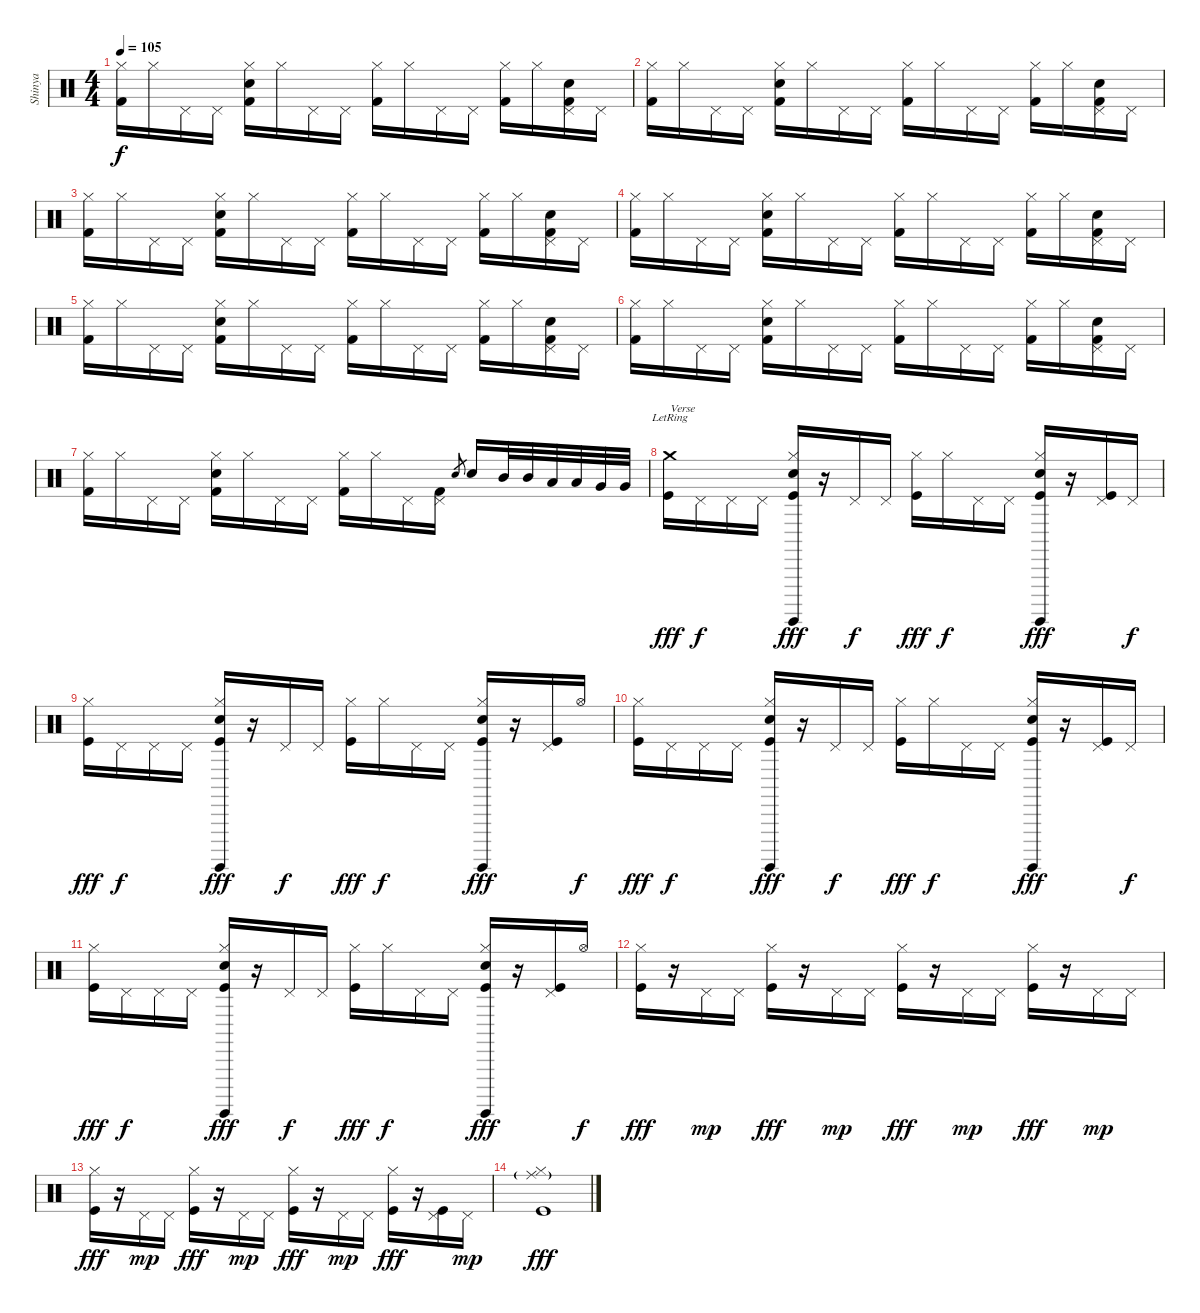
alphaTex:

\track ("Shinya" "Shinya") {instrument percussion}
\staff {score}
\articulation defaults
\ts (4 4)
\tempo 105
\clef neutral
\ks c
("Hi-Hat (closed)" "Kick (hit) 2").16{dy f} "Hi-Hat (closed)".16 "Pedal Hi-Hat (hit)".16 "Pedal Hi-Hat (hit)".16 ("Hi-Hat (closed)" "Electric Snare (hit)" "Kick (hit) 2").16 "Hi-Hat (closed)".16 "Pedal Hi-Hat (hit)".16 "Pedal Hi-Hat (hit)".16 ("Hi-Hat (closed)" "Kick (hit) 2").16 "Hi-Hat (closed)".16 "Pedal Hi-Hat (hit)".16 "Pedal Hi-Hat (hit)".16 ("Hi-Hat (closed)" "Kick (hit) 2").16 "Hi-Hat (closed)".16 ("Pedal Hi-Hat (hit)" "Electric Snare (hit)" "Kick (hit) 2").16 "Pedal Hi-Hat (hit)".16 |
("Hi-Hat (closed)" "Kick (hit) 2").16 "Hi-Hat (closed)".16 "Pedal Hi-Hat (hit)".16 "Pedal Hi-Hat (hit)".16 ("Hi-Hat (closed)" "Electric Snare (hit)" "Kick (hit) 2").16 "Hi-Hat (closed)".16 "Pedal Hi-Hat (hit)".16 "Pedal Hi-Hat (hit)".16 ("Hi-Hat (closed)" "Kick (hit) 2").16 "Hi-Hat (closed)".16 "Pedal Hi-Hat (hit)".16 "Pedal Hi-Hat (hit)".16 ("Hi-Hat (closed)" "Kick (hit) 2").16 "Hi-Hat (closed)".16 ("Pedal Hi-Hat (hit)" "Electric Snare (hit)" "Kick (hit) 2").16 "Pedal Hi-Hat (hit)".16 |
("Hi-Hat (closed)" "Kick (hit) 2").16 "Hi-Hat (closed)".16 "Pedal Hi-Hat (hit)".16 "Pedal Hi-Hat (hit)".16 ("Hi-Hat (closed)" "Electric Snare (hit)" "Kick (hit) 2").16 "Hi-Hat (closed)".16 "Pedal Hi-Hat (hit)".16 "Pedal Hi-Hat (hit)".16 ("Hi-Hat (closed)" "Kick (hit) 2").16 "Hi-Hat (closed)".16 "Pedal Hi-Hat (hit)".16 "Pedal Hi-Hat (hit)".16 ("Hi-Hat (closed)" "Kick (hit) 2").16 "Hi-Hat (closed)".16 ("Pedal Hi-Hat (hit)" "Electric Snare (hit)" "Kick (hit) 2").16 "Pedal Hi-Hat (hit)".16 |
("Hi-Hat (closed)" "Kick (hit) 2").16 "Hi-Hat (closed)".16 "Pedal Hi-Hat (hit)".16 "Pedal Hi-Hat (hit)".16 ("Hi-Hat (closed)" "Electric Snare (hit)" "Kick (hit) 2").16 "Hi-Hat (closed)".16 "Pedal Hi-Hat (hit)".16 "Pedal Hi-Hat (hit)".16 ("Hi-Hat (closed)" "Kick (hit) 2").16 "Hi-Hat (closed)".16 "Pedal Hi-Hat (hit)".16 "Pedal Hi-Hat (hit)".16 ("Hi-Hat (closed)" "Kick (hit) 2").16 "Hi-Hat (closed)".16 ("Pedal Hi-Hat (hit)" "Electric Snare (hit)" "Kick (hit) 2").16 "Pedal Hi-Hat (hit)".16 |
("Hi-Hat (closed)" "Kick (hit) 2").16 "Hi-Hat (closed)".16 "Pedal Hi-Hat (hit)".16 "Pedal Hi-Hat (hit)".16 ("Hi-Hat (closed)" "Electric Snare (hit)" "Kick (hit) 2").16 "Hi-Hat (closed)".16 "Pedal Hi-Hat (hit)".16 "Pedal Hi-Hat (hit)".16 ("Hi-Hat (closed)" "Kick (hit) 2").16 "Hi-Hat (closed)".16 "Pedal Hi-Hat (hit)".16 "Pedal Hi-Hat (hit)".16 ("Hi-Hat (closed)" "Kick (hit) 2").16 "Hi-Hat (closed)".16 ("Pedal Hi-Hat (hit)" "Electric Snare (hit)" "Kick (hit) 2").16 "Pedal Hi-Hat (hit)".16 |
("Hi-Hat (closed)" "Kick (hit) 2").16 "Hi-Hat (closed)".16 "Pedal Hi-Hat (hit)".16 "Pedal Hi-Hat (hit)".16 ("Hi-Hat (closed)" "Electric Snare (hit)" "Kick (hit) 2").16 "Hi-Hat (closed)".16 "Pedal Hi-Hat (hit)".16 "Pedal Hi-Hat (hit)".16 ("Hi-Hat (closed)" "Kick (hit) 2").16 "Hi-Hat (closed)".16 "Pedal Hi-Hat (hit)".16 "Pedal Hi-Hat (hit)".16 ("Hi-Hat (closed)" "Kick (hit) 2").16 "Hi-Hat (closed)".16 ("Pedal Hi-Hat (hit)" "Electric Snare (hit)" "Kick (hit) 2").16 "Pedal Hi-Hat (hit)".16 |
("Hi-Hat (closed)" "Kick (hit) 2").16 "Hi-Hat (closed)".16 "Pedal Hi-Hat (hit)".16 "Pedal Hi-Hat (hit)".16 ("Hi-Hat (closed)" "Electric Snare (hit)" "Kick (hit) 2").16 "Hi-Hat (closed)".16 "Pedal Hi-Hat (hit)".16 "Pedal Hi-Hat (hit)".16 ("Hi-Hat (closed)" "Kick (hit) 2").16 "Hi-Hat (closed)".16 "Pedal Hi-Hat (hit)".16 ("Pedal Hi-Hat (hit)" "Kick (hit) 2").16 "Electric Snare (hit)".8{gr} "Electric Snare (hit)".16 "Mid Tom (hit)".32 "Mid Tom (hit)".32 "Low Tom (hit)".32 "Low Tom (hit)".32 "Very Low Tom (hit)".32 "Very Low Tom (hit)".32 |
\section ("" "")
("Crash medium (hit)"{lr} "Kick (hit)").16{txt "Verse" dy fff} "Pedal Hi-Hat (hit)".16{dy f} "Pedal Hi-Hat (hit)".16 "Pedal Hi-Hat (hit)".16 ("Hi-Hat (closed)" "Surdo (hit)" "Electric Snare (hit)" "Kick (hit)").16{dy fff} r.16 "Pedal Hi-Hat (hit)".16{dy f} "Pedal Hi-Hat (hit)".16 ("Hi-Hat (closed)" "Kick (hit)").16{dy fff} "Hi-Hat (closed)".16{dy f} "Pedal Hi-Hat (hit)".16 "Pedal Hi-Hat (hit)".16 ("Hi-Hat (closed)" "Surdo (hit)" "Electric Snare (hit)" "Kick (hit)").16{dy fff} r.16 ("Pedal Hi-Hat (hit)" "Kick (hit)").16 "Pedal Hi-Hat (hit)".16{dy f} |
("Hi-Hat (closed)" "Kick (hit)").16{dy fff} "Pedal Hi-Hat (hit)".16{dy f} "Pedal Hi-Hat (hit)".16 "Pedal Hi-Hat (hit)".16 ("Hi-Hat (closed)" "Surdo (hit)" "Electric Snare (hit)" "Kick (hit)").16{dy fff} r.16 "Pedal Hi-Hat (hit)".16{dy f} "Pedal Hi-Hat (hit)".16 ("Hi-Hat (closed)" "Kick (hit)").16{dy fff} "Hi-Hat (closed)".16{dy f} "Pedal Hi-Hat (hit)".16 "Pedal Hi-Hat (hit)".16 ("Hi-Hat (closed)" "Surdo (hit)" "Electric Snare (hit)" "Kick (hit)").16{dy fff} r.16 ("Pedal Hi-Hat (hit)" "Kick (hit)").16 "Hi-Hat (open)".16{dy f} |
("Hi-Hat (closed)" "Kick (hit)").16{dy fff} "Pedal Hi-Hat (hit)".16{dy f} "Pedal Hi-Hat (hit)".16 "Pedal Hi-Hat (hit)".16 ("Hi-Hat (closed)" "Surdo (hit)" "Electric Snare (hit)" "Kick (hit)").16{dy fff} r.16 "Pedal Hi-Hat (hit)".16{dy f} "Pedal Hi-Hat (hit)".16 ("Hi-Hat (closed)" "Kick (hit)").16{dy fff} "Hi-Hat (closed)".16{dy f} "Pedal Hi-Hat (hit)".16 "Pedal Hi-Hat (hit)".16 ("Hi-Hat (closed)" "Surdo (hit)" "Electric Snare (hit)" "Kick (hit)").16{dy fff} r.16 ("Pedal Hi-Hat (hit)" "Kick (hit)").16 "Pedal Hi-Hat (hit)".16{dy f} |
("Hi-Hat (closed)" "Kick (hit)").16{dy fff} "Pedal Hi-Hat (hit)".16{dy f} "Pedal Hi-Hat (hit)".16 "Pedal Hi-Hat (hit)".16 ("Hi-Hat (closed)" "Surdo (hit)" "Electric Snare (hit)" "Kick (hit)").16{dy fff} r.16 "Pedal Hi-Hat (hit)".16{dy f} "Pedal Hi-Hat (hit)".16 ("Hi-Hat (closed)" "Kick (hit)").16{dy fff} "Hi-Hat (closed)".16{dy f} "Pedal Hi-Hat (hit)".16 "Pedal Hi-Hat (hit)".16 ("Hi-Hat (closed)" "Surdo (hit)" "Electric Snare (hit)" "Kick (hit)").16{dy fff} r.16 ("Pedal Hi-Hat (hit)" "Kick (hit)").16 "Hi-Hat (open)".16{dy f} |
("Hi-Hat (closed)" "Kick (hit)").16{dy fff} r.16 "Pedal Hi-Hat (hit)".16{dy mp} "Pedal Hi-Hat (hit)".16 ("Hi-Hat (closed)" "Kick (hit)").16{dy fff} r.16 "Pedal Hi-Hat (hit)".16{dy mp} "Pedal Hi-Hat (hit)".16 ("Hi-Hat (closed)" "Kick (hit)").16{dy fff} r.16 "Pedal Hi-Hat (hit)".16{dy mp} "Pedal Hi-Hat (hit)".16 ("Hi-Hat (closed)" "Kick (hit)").16{dy fff} r.16 "Pedal Hi-Hat (hit)".16{dy mp} "Pedal Hi-Hat (hit)".16 |
("Hi-Hat (closed)" "Kick (hit)").16{dy fff} r.16 "Pedal Hi-Hat (hit)".16{dy mp} "Pedal Hi-Hat (hit)".16 ("Hi-Hat (closed)" "Kick (hit)").16{dy fff} r.16 "Pedal Hi-Hat (hit)".16{dy mp} "Pedal Hi-Hat (hit)".16 ("Hi-Hat (closed)" "Kick (hit)").16{dy fff} r.16 "Pedal Hi-Hat (hit)".16{dy mp} "Pedal Hi-Hat (hit)".16 ("Hi-Hat (closed)" "Kick (hit)").16{dy fff} r.16 ("Pedal Hi-Hat (hit)" "Kick (hit)").16 "Pedal Hi-Hat (hit)".16{dy mp} |
("Ride (middle)"{g} "Hi-Hat (closed)" "Kick (hit)").1{dy fff}
